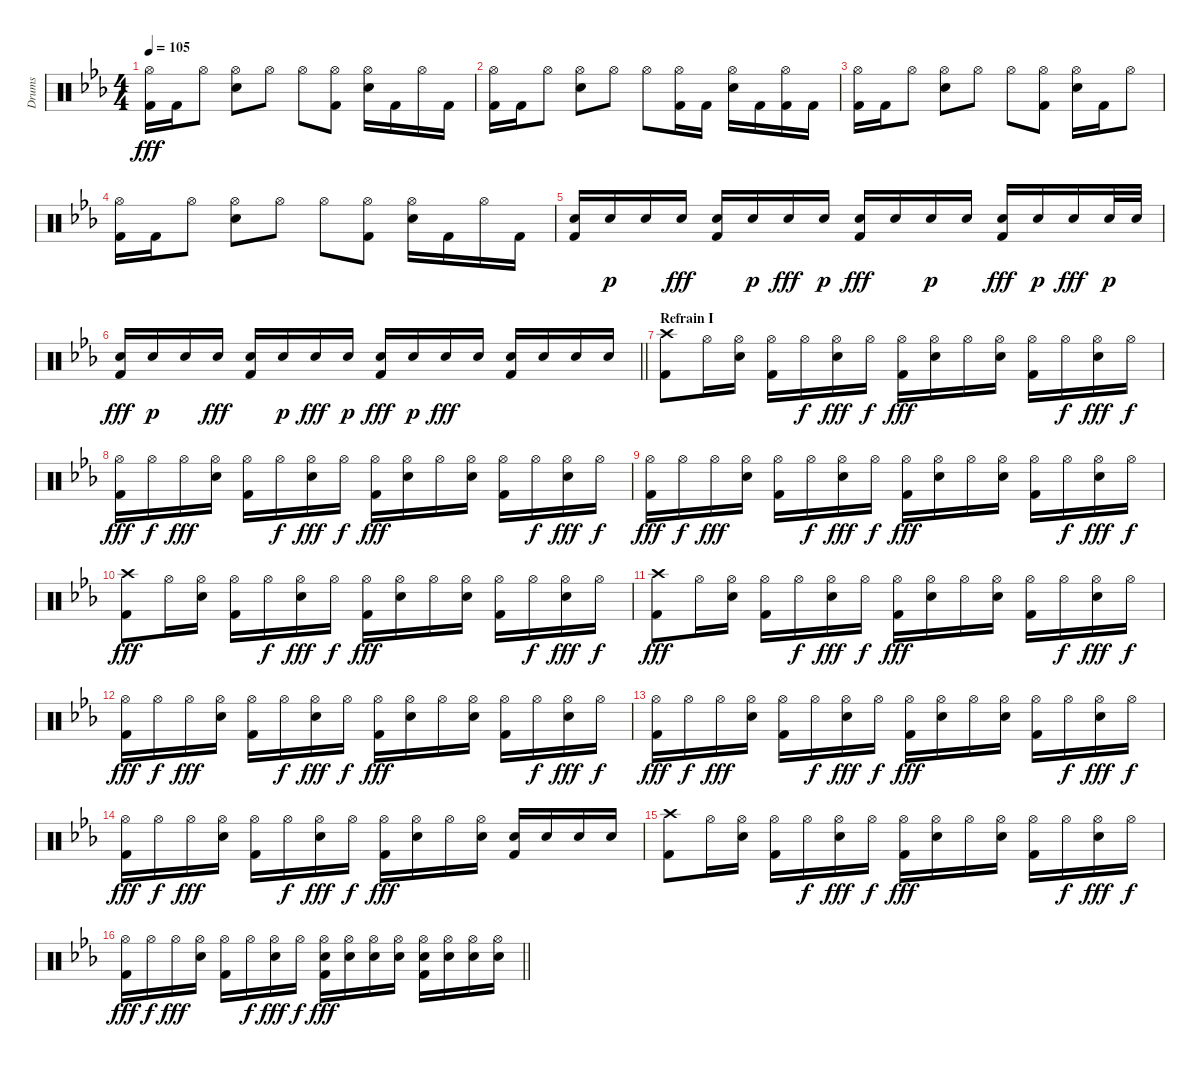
\track ("Drums" "Drums") {instrument percussion}
\staff {score}
\articulation defaults
\ts (4 4)
\tempo 105
\clef neutral
\ks eb
("Hi-Hat (open)" "Kick (hit) 2").16{dy fff} "Kick (hit) 2".16 "Hi-Hat (open)".8 ("Hi-Hat (open)" "Snare (hit) 2").8 "Hi-Hat (open)".8 "Hi-Hat (open)".8 ("Hi-Hat (open)" "Kick (hit) 2").8 ("Hi-Hat (open)" "Snare (hit) 2").16 "Kick (hit) 2".16 "Hi-Hat (open)".16 "Kick (hit) 2".16 |
("Hi-Hat (open)" "Kick (hit) 2").16 "Kick (hit) 2".16 "Hi-Hat (open)".8 ("Hi-Hat (open)" "Snare (hit) 2").8 "Hi-Hat (open)".8 "Hi-Hat (open)".8 ("Hi-Hat (open)" "Kick (hit) 2").16 "Kick (hit) 2".16 ("Hi-Hat (open)" "Snare (hit) 2").16 "Kick (hit) 2".16 ("Hi-Hat (open)" "Kick (hit) 2").16 "Kick (hit) 2".16 |
("Hi-Hat (open)" "Kick (hit) 2").16 "Kick (hit) 2".16 "Hi-Hat (open)".8 ("Hi-Hat (open)" "Snare (hit) 2").8 "Hi-Hat (open)".8 "Hi-Hat (open)".8 ("Hi-Hat (open)" "Kick (hit) 2").8 ("Hi-Hat (open)" "Snare (hit) 2").16 "Kick (hit) 2".16 "Hi-Hat (open)".8 |
("Hi-Hat (open)" "Kick (hit) 2").16 "Kick (hit) 2".16 "Hi-Hat (open)".8 ("Hi-Hat (open)" "Snare (hit) 2").8 "Hi-Hat (open)".8 "Hi-Hat (open)".8 ("Hi-Hat (open)" "Kick (hit) 2").8 ("Hi-Hat (open)" "Snare (hit) 2").16 "Kick (hit) 2".16 "Hi-Hat (open)".16 "Kick (hit) 2".16 |
("Electric Snare (hit)" "Kick (hit) 2").16 "Electric Snare (hit)".16{dy p} "Electric Snare (hit)".16 "Electric Snare (hit)".16{dy fff} ("Electric Snare (hit)" "Kick (hit) 2").16 "Electric Snare (hit)".16{dy p} "Electric Snare (hit)".16{dy fff} "Electric Snare (hit)".16{dy p} ("Electric Snare (hit)" "Kick (hit) 2").16{dy fff} "Electric Snare (hit)".16 "Electric Snare (hit)".16{dy p} "Electric Snare (hit)".16 ("Electric Snare (hit)" "Kick (hit) 2").16{dy fff} "Electric Snare (hit)".16{dy p} "Electric Snare (hit)".16{dy fff} "Electric Snare (hit)".32{dy p} "Electric Snare (hit)".32 |
\barLineRight lightlight
("Electric Snare (hit)" "Kick (hit) 2").16{dy fff} "Electric Snare (hit)".16{dy p} "Electric Snare (hit)".16 "Electric Snare (hit)".16{dy fff} ("Electric Snare (hit)" "Kick (hit) 2").16 "Electric Snare (hit)".16{dy p} "Electric Snare (hit)".16{dy fff} "Electric Snare (hit)".16{dy p} ("Electric Snare (hit)" "Kick (hit) 2").16{dy fff} "Electric Snare (hit)".16{dy p} "Electric Snare (hit)".16{dy fff} "Electric Snare (hit)".16 ("Electric Snare (hit)" "Kick (hit) 2").16 "Electric Snare (hit)".16 "Electric Snare (hit)".16 "Electric Snare (hit)".16 |
\section ("" "Refrain I")
("Crash high (hit)" "Kick (hit) 2").8 "Hi-Hat (open)".16 ("Hi-Hat (open)" "Electric Snare (hit)").16 ("Hi-Hat (open)" "Kick (hit) 2").16 "Hi-Hat (open)".16{dy f} ("Hi-Hat (open)" "Electric Snare (hit)").16{dy fff} "Hi-Hat (open)".16{dy f} ("Hi-Hat (open)" "Kick (hit) 2").16{dy fff} ("Hi-Hat (open)" "Electric Snare (hit)").16 "Hi-Hat (open)".16 ("Hi-Hat (open)" "Electric Snare (hit)").16 ("Hi-Hat (open)" "Kick (hit) 2").16 "Hi-Hat (open)".16{dy f} ("Hi-Hat (open)" "Electric Snare (hit)").16{dy fff} "Hi-Hat (open)".16{dy f} |
("Hi-Hat (open)" "Kick (hit) 2").16{dy fff} "Hi-Hat (open)".16{dy f} "Hi-Hat (open)".16{dy fff} ("Hi-Hat (open)" "Snare (hit) 2").16 ("Hi-Hat (open)" "Kick (hit) 2").16 "Hi-Hat (open)".16{dy f} ("Hi-Hat (open)" "Snare (hit) 2").16{dy fff} "Hi-Hat (open)".16{dy f} ("Hi-Hat (open)" "Kick (hit) 2").16{dy fff} ("Hi-Hat (open)" "Snare (hit) 2").16 "Hi-Hat (open)".16 ("Hi-Hat (open)" "Snare (hit) 2").16 ("Hi-Hat (open)" "Kick (hit) 2").16 "Hi-Hat (open)".16{dy f} ("Hi-Hat (open)" "Snare (hit) 2").16{dy fff} "Hi-Hat (open)".16{dy f} |
("Hi-Hat (open)" "Kick (hit) 2").16{dy fff} "Hi-Hat (open)".16{dy f} "Hi-Hat (open)".16{dy fff} ("Hi-Hat (open)" "Snare (hit) 2").16 ("Hi-Hat (open)" "Kick (hit) 2").16 "Hi-Hat (open)".16{dy f} ("Hi-Hat (open)" "Snare (hit) 2").16{dy fff} "Hi-Hat (open)".16{dy f} ("Hi-Hat (open)" "Kick (hit) 2").16{dy fff} ("Hi-Hat (open)" "Snare (hit) 2").16 "Hi-Hat (open)".16 ("Hi-Hat (open)" "Snare (hit) 2").16 ("Hi-Hat (open)" "Kick (hit) 2").16 "Hi-Hat (open)".16{dy f} ("Hi-Hat (open)" "Snare (hit) 2").16{dy fff} "Hi-Hat (open)".16{dy f} |
("Crash high (hit)" "Kick (hit) 2").8{dy fff} "Hi-Hat (open)".16 ("Hi-Hat (open)" "Snare (hit) 2").16 ("Hi-Hat (open)" "Kick (hit) 2").16 "Hi-Hat (open)".16{dy f} ("Hi-Hat (open)" "Snare (hit) 2").16{dy fff} "Hi-Hat (open)".16{dy f} ("Hi-Hat (open)" "Kick (hit) 2").16{dy fff} ("Hi-Hat (open)" "Snare (hit) 2").16 "Hi-Hat (open)".16 ("Hi-Hat (open)" "Snare (hit) 2").16 ("Hi-Hat (open)" "Kick (hit) 2").16 "Hi-Hat (open)".16{dy f} ("Hi-Hat (open)" "Snare (hit) 2").16{dy fff} "Hi-Hat (open)".16{dy f} |
("Crash high (hit)" "Kick (hit) 2").8{dy fff} "Hi-Hat (open)".16 ("Hi-Hat (open)" "Snare (hit) 2").16 ("Hi-Hat (open)" "Kick (hit) 2").16 "Hi-Hat (open)".16{dy f} ("Hi-Hat (open)" "Snare (hit) 2").16{dy fff} "Hi-Hat (open)".16{dy f} ("Hi-Hat (open)" "Kick (hit) 2").16{dy fff} ("Hi-Hat (open)" "Snare (hit) 2").16 "Hi-Hat (open)".16 ("Hi-Hat (open)" "Snare (hit) 2").16 ("Hi-Hat (open)" "Kick (hit) 2").16 "Hi-Hat (open)".16{dy f} ("Hi-Hat (open)" "Snare (hit) 2").16{dy fff} "Hi-Hat (open)".16{dy f} |
("Hi-Hat (open)" "Kick (hit) 2").16{dy fff} "Hi-Hat (open)".16{dy f} "Hi-Hat (open)".16{dy fff} ("Hi-Hat (open)" "Snare (hit) 2").16 ("Hi-Hat (open)" "Kick (hit) 2").16 "Hi-Hat (open)".16{dy f} ("Hi-Hat (open)" "Snare (hit) 2").16{dy fff} "Hi-Hat (open)".16{dy f} ("Hi-Hat (open)" "Kick (hit) 2").16{dy fff} ("Hi-Hat (open)" "Snare (hit) 2").16 "Hi-Hat (open)".16 ("Hi-Hat (open)" "Snare (hit) 2").16 ("Hi-Hat (open)" "Kick (hit) 2").16 "Hi-Hat (open)".16{dy f} ("Hi-Hat (open)" "Snare (hit) 2").16{dy fff} "Hi-Hat (open)".16{dy f} |
("Hi-Hat (open)" "Kick (hit) 2").16{dy fff} "Hi-Hat (open)".16{dy f} "Hi-Hat (open)".16{dy fff} ("Hi-Hat (open)" "Snare (hit) 2").16 ("Hi-Hat (open)" "Kick (hit) 2").16 "Hi-Hat (open)".16{dy f} ("Hi-Hat (open)" "Snare (hit) 2").16{dy fff} "Hi-Hat (open)".16{dy f} ("Hi-Hat (open)" "Kick (hit) 2").16{dy fff} ("Hi-Hat (open)" "Snare (hit) 2").16 "Hi-Hat (open)".16 ("Hi-Hat (open)" "Snare (hit) 2").16 ("Hi-Hat (open)" "Kick (hit) 2").16 "Hi-Hat (open)".16{dy f} ("Hi-Hat (open)" "Snare (hit) 2").16{dy fff} "Hi-Hat (open)".16{dy f} |
("Hi-Hat (open)" "Kick (hit) 2").16{dy fff} "Hi-Hat (open)".16{dy f} "Hi-Hat (open)".16{dy fff} ("Hi-Hat (open)" "Snare (hit) 2").16 ("Hi-Hat (open)" "Kick (hit) 2").16 "Hi-Hat (open)".16{dy f} ("Hi-Hat (open)" "Snare (hit) 2").16{dy fff} "Hi-Hat (open)".16{dy f} ("Hi-Hat (open)" "Kick (hit) 2").16{dy fff} ("Hi-Hat (open)" "Snare (hit) 2").16 "Hi-Hat (open)".16 ("Hi-Hat (open)" "Snare (hit) 2").16 ("Snare (hit) 2" "Kick (hit) 2").16 "Snare (hit) 2".16 "Snare (hit) 2".16 "Snare (hit) 2".16 |
("Crash high (hit)" "Kick (hit) 2").8 "Hi-Hat (open)".16 ("Hi-Hat (open)" "Snare (hit) 2").16 ("Hi-Hat (open)" "Kick (hit) 2").16 "Hi-Hat (open)".16{dy f} ("Hi-Hat (open)" "Snare (hit) 2").16{dy fff} "Hi-Hat (open)".16{dy f} ("Hi-Hat (open)" "Kick (hit) 2").16{dy fff} ("Hi-Hat (open)" "Snare (hit) 2").16 "Hi-Hat (open)".16 ("Hi-Hat (open)" "Snare (hit) 2").16 ("Hi-Hat (open)" "Kick (hit) 2").16 "Hi-Hat (open)".16{dy f} ("Hi-Hat (open)" "Snare (hit) 2").16{dy fff} "Hi-Hat (open)".16{dy f} |
\barLineRight lightlight
("Hi-Hat (open)" "Kick (hit) 2").16{dy fff} "Hi-Hat (open)".16{dy f} "Hi-Hat (open)".16{dy fff} ("Hi-Hat (open)" "Snare (hit) 2").16 ("Hi-Hat (open)" "Kick (hit) 2").16 "Hi-Hat (open)".16{dy f} ("Hi-Hat (open)" "Snare (hit) 2").16{dy fff} "Hi-Hat (open)".16{dy f} ("Hi-Hat (open)" "Snare (hit) 2" "Kick (hit) 2").16{dy fff} ("Hi-Hat (open)" "Snare (hit) 2").16 ("Hi-Hat (open)" "Snare (hit) 2").16 ("Hi-Hat (open)" "Snare (hit) 2").16 ("Hi-Hat (open)" "Snare (hit) 2" "Kick (hit) 2").16 ("Hi-Hat (open)" "Snare (hit) 2").16 ("Hi-Hat (open)" "Snare (hit) 2").16 ("Hi-Hat (open)" "Snare (hit) 2").16
